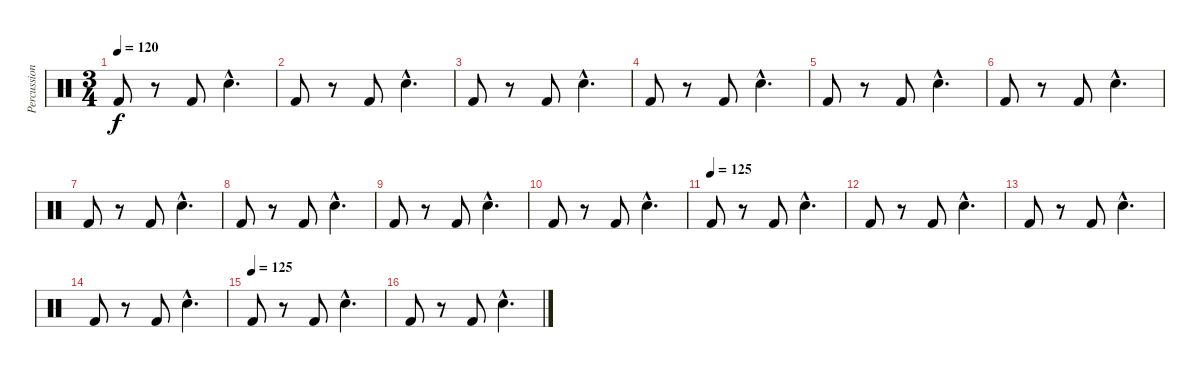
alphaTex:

\track ("Percussion" "Percussion") {instrument percussion}
\staff {score}
\articulation defaults
\ts (3 4)
\tempo 120
\clef neutral
\ks c "Kick (hit) 2".8{dy f}
r.8 "Kick (hit) 2".8 "Electric Snare (hit)"{hac}.4{d} |
"Kick (hit) 2".8 r.8 "Kick (hit) 2".8 "Electric Snare (hit)"{hac}.4{d} |
"Kick (hit) 2".8 r.8 "Kick (hit) 2".8 "Electric Snare (hit)"{hac}.4{d} |
"Kick (hit) 2".8 r.8 "Kick (hit) 2".8 "Electric Snare (hit)"{hac}.4{d} |
"Kick (hit) 2".8 r.8 "Kick (hit) 2".8 "Electric Snare (hit)"{hac}.4{d} |
"Kick (hit) 2".8 r.8 "Kick (hit) 2".8 "Electric Snare (hit)"{hac}.4{d} |
"Kick (hit) 2".8 r.8 "Kick (hit) 2".8 "Electric Snare (hit)"{hac}.4{d} |
"Kick (hit) 2".8 r.8 "Kick (hit) 2".8 "Electric Snare (hit)"{hac}.4{d} |
"Kick (hit) 2".8 r.8 "Kick (hit) 2".8 "Electric Snare (hit)"{hac}.4{d} |
"Kick (hit) 2".8 r.8 "Kick (hit) 2".8 "Electric Snare (hit)"{hac}.4{d} |
\tempo (125)
"Kick (hit) 2".8 r.8 "Kick (hit) 2".8 "Electric Snare (hit)"{hac}.4{d} |
"Kick (hit) 2".8 r.8 "Kick (hit) 2".8 "Electric Snare (hit)"{hac}.4{d} |
"Kick (hit) 2".8 r.8 "Kick (hit) 2".8 "Electric Snare (hit)"{hac}.4{d} |
"Kick (hit) 2".8 r.8 "Kick (hit) 2".8 "Electric Snare (hit)"{hac}.4{d} |
\tempo (125)
"Kick (hit) 2".8 r.8 "Kick (hit) 2".8 "Electric Snare (hit)"{hac}.4{d} |
"Kick (hit) 2".8 r.8 "Kick (hit) 2".8 "Electric Snare (hit)"{hac}.4{d}
